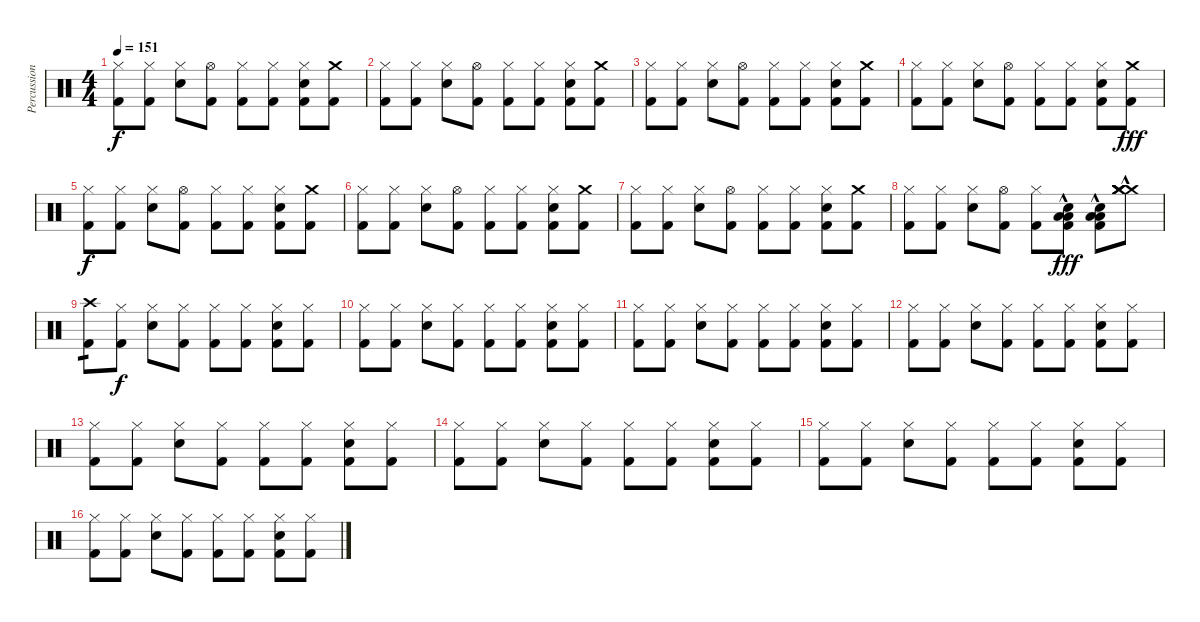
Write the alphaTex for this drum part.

\track ("Percussion" "Percussion") {instrument percussion bank 1}
\staff {score}
\articulation defaults
\ts (4 4)
\tempo 151
\clef neutral
\ks c
("Hi-Hat (closed)" "Kick (hit) 2").8{dy f} ("Hi-Hat (closed)" "Kick (hit) 2").8 ("Snare (hit) 2" "Hi-Hat (closed)").8 ("Hi-Hat (open)" "Kick (hit) 2").8 ("Hi-Hat (closed)" "Kick (hit) 2").8 ("Hi-Hat (closed)" "Kick (hit) 2").8 ("Snare (hit) 2" "Hi-Hat (closed)" "Kick (hit) 2").8 ("Crash medium (hit)" "Kick (hit) 2").8 |
("Hi-Hat (closed)" "Kick (hit) 2").8 ("Hi-Hat (closed)" "Kick (hit) 2").8 ("Snare (hit) 2" "Hi-Hat (closed)").8 ("Hi-Hat (open)" "Kick (hit) 2").8 ("Hi-Hat (closed)" "Kick (hit) 2").8 ("Hi-Hat (closed)" "Kick (hit) 2").8 ("Snare (hit) 2" "Hi-Hat (closed)" "Kick (hit) 2").8 ("Crash medium (hit)" "Kick (hit) 2").8 |
("Hi-Hat (closed)" "Kick (hit) 2").8 ("Hi-Hat (closed)" "Kick (hit) 2").8 ("Snare (hit) 2" "Hi-Hat (closed)").8 ("Hi-Hat (open)" "Kick (hit) 2").8 ("Hi-Hat (closed)" "Kick (hit) 2").8 ("Hi-Hat (closed)" "Kick (hit) 2").8 ("Snare (hit) 2" "Hi-Hat (closed)" "Kick (hit) 2").8 ("Crash medium (hit)" "Kick (hit) 2").8 |
("Hi-Hat (closed)" "Kick (hit) 2").8 ("Hi-Hat (closed)" "Kick (hit) 2").8 ("Snare (hit) 2" "Hi-Hat (closed)").8 ("Hi-Hat (open)" "Kick (hit) 2").8 ("Hi-Hat (closed)" "Kick (hit) 2").8 ("Hi-Hat (closed)" "Kick (hit) 2").8 ("Snare (hit) 2" "Hi-Hat (closed)" "Kick (hit) 2").8 ("Crash medium (hit)" "Kick (hit) 2").8{dy fff} |
("Hi-Hat (closed)" "Kick (hit) 2").8{dy f} ("Hi-Hat (closed)" "Kick (hit) 2").8 ("Snare (hit) 2" "Hi-Hat (closed)").8 ("Hi-Hat (open)" "Kick (hit) 2").8 ("Hi-Hat (closed)" "Kick (hit) 2").8 ("Hi-Hat (closed)" "Kick (hit) 2").8 ("Snare (hit) 2" "Hi-Hat (closed)" "Kick (hit) 2").8 ("Crash medium (hit)" "Kick (hit) 2").8 |
("Hi-Hat (closed)" "Kick (hit) 2").8 ("Hi-Hat (closed)" "Kick (hit) 2").8 ("Snare (hit) 2" "Hi-Hat (closed)").8 ("Hi-Hat (open)" "Kick (hit) 2").8 ("Hi-Hat (closed)" "Kick (hit) 2").8 ("Hi-Hat (closed)" "Kick (hit) 2").8 ("Snare (hit) 2" "Hi-Hat (closed)" "Kick (hit) 2").8 ("Crash medium (hit)" "Kick (hit) 2").8 |
("Hi-Hat (closed)" "Kick (hit) 2").8 ("Hi-Hat (closed)" "Kick (hit) 2").8 ("Snare (hit) 2" "Hi-Hat (closed)").8 ("Hi-Hat (open)" "Kick (hit) 2").8 ("Hi-Hat (closed)" "Kick (hit) 2").8 ("Hi-Hat (closed)" "Kick (hit) 2").8 ("Snare (hit) 2" "Hi-Hat (closed)" "Kick (hit) 2").8 ("Crash medium (hit)" "Kick (hit) 2").8 |
("Hi-Hat (closed)" "Kick (hit) 2").8 ("Hi-Hat (closed)" "Kick (hit) 2").8 ("Snare (hit) 2" "Hi-Hat (closed)").8 ("Hi-Hat (open)" "Kick (hit) 2").8 ("Hi-Hat (closed)" "Kick (hit) 2").8 ("Low Floor Tom (hit)" "Low Floor Tom (hit)"{hac} "Snare (hit) 2" "Kick (hit) 2").8{dy fff} ("Low Floor Tom (hit)" "Low Floor Tom (hit)"{hac} "Snare (hit) 2" "Kick (hit) 2").8 ("Crash medium (hit)"{hac} "Crash medium (hit)" "Crash medium (hit)" "Crash medium (hit)").8 |
("Crash high (hit)" "Kick (hit) 2").8{tp 1} ("Hi-Hat (closed)" "Kick (hit) 2").8{dy f} ("Snare (hit) 2" "Hi-Hat (closed)").8 ("Hi-Hat (closed)" "Kick (hit) 2").8 ("Hi-Hat (closed)" "Kick (hit) 2").8 ("Hi-Hat (closed)" "Kick (hit) 2").8 ("Snare (hit) 2" "Hi-Hat (closed)" "Kick (hit) 2").8 ("Hi-Hat (closed)" "Kick (hit) 2").8 |
("Hi-Hat (closed)" "Kick (hit) 2").8 ("Hi-Hat (closed)" "Kick (hit) 2").8 ("Snare (hit) 2" "Hi-Hat (closed)").8 ("Hi-Hat (closed)" "Kick (hit) 2").8 ("Hi-Hat (closed)" "Kick (hit) 2").8 ("Hi-Hat (closed)" "Kick (hit) 2").8 ("Snare (hit) 2" "Hi-Hat (closed)" "Kick (hit) 2").8 ("Hi-Hat (closed)" "Kick (hit) 2").8 |
("Hi-Hat (closed)" "Kick (hit) 2").8 ("Hi-Hat (closed)" "Kick (hit) 2").8 ("Snare (hit) 2" "Hi-Hat (closed)").8 ("Hi-Hat (closed)" "Kick (hit) 2").8 ("Hi-Hat (closed)" "Kick (hit) 2").8 ("Hi-Hat (closed)" "Kick (hit) 2").8 ("Snare (hit) 2" "Hi-Hat (closed)" "Kick (hit) 2").8 ("Hi-Hat (closed)" "Kick (hit) 2").8 |
("Hi-Hat (closed)" "Kick (hit) 2").8 ("Hi-Hat (closed)" "Kick (hit) 2").8 ("Snare (hit) 2" "Hi-Hat (closed)").8 ("Hi-Hat (closed)" "Kick (hit) 2").8 ("Hi-Hat (closed)" "Kick (hit) 2").8 ("Hi-Hat (closed)" "Kick (hit) 2").8 ("Snare (hit) 2" "Hi-Hat (closed)" "Kick (hit) 2").8 ("Hi-Hat (closed)" "Kick (hit) 2").8 |
("Hi-Hat (closed)" "Kick (hit) 2").8 ("Hi-Hat (closed)" "Kick (hit) 2").8 ("Snare (hit) 2" "Hi-Hat (closed)").8 ("Hi-Hat (closed)" "Kick (hit) 2").8 ("Hi-Hat (closed)" "Kick (hit) 2").8 ("Hi-Hat (closed)" "Kick (hit) 2").8 ("Snare (hit) 2" "Hi-Hat (closed)" "Kick (hit) 2").8 ("Hi-Hat (closed)" "Kick (hit) 2").8 |
("Hi-Hat (closed)" "Kick (hit) 2").8 ("Hi-Hat (closed)" "Kick (hit) 2").8 ("Snare (hit) 2" "Hi-Hat (closed)").8 ("Hi-Hat (closed)" "Kick (hit) 2").8 ("Hi-Hat (closed)" "Kick (hit) 2").8 ("Hi-Hat (closed)" "Kick (hit) 2").8 ("Snare (hit) 2" "Hi-Hat (closed)" "Kick (hit) 2").8 ("Hi-Hat (closed)" "Kick (hit) 2").8 |
("Hi-Hat (closed)" "Kick (hit) 2").8 ("Hi-Hat (closed)" "Kick (hit) 2").8 ("Snare (hit) 2" "Hi-Hat (closed)").8 ("Hi-Hat (closed)" "Kick (hit) 2").8 ("Hi-Hat (closed)" "Kick (hit) 2").8 ("Hi-Hat (closed)" "Kick (hit) 2").8 ("Snare (hit) 2" "Hi-Hat (closed)" "Kick (hit) 2").8 ("Hi-Hat (closed)" "Kick (hit) 2").8 |
("Hi-Hat (closed)" "Kick (hit) 2").8 ("Hi-Hat (closed)" "Kick (hit) 2").8 ("Snare (hit) 2" "Hi-Hat (closed)").8 ("Hi-Hat (closed)" "Kick (hit) 2").8 ("Hi-Hat (closed)" "Kick (hit) 2").8 ("Hi-Hat (closed)" "Kick (hit) 2").8 ("Snare (hit) 2" "Hi-Hat (closed)" "Kick (hit) 2").8 ("Hi-Hat (closed)" "Kick (hit) 2").8
